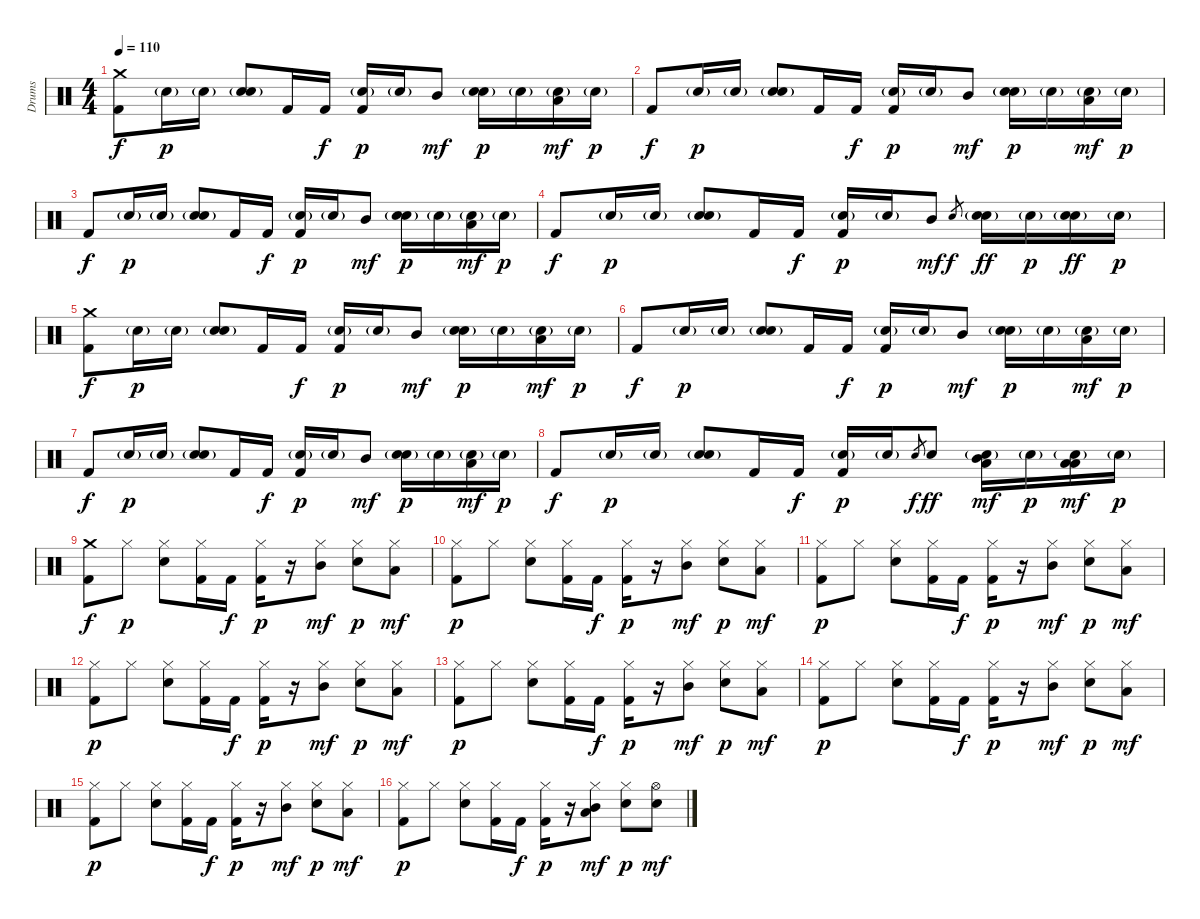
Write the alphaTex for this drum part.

\track ("Drums" "Drums") {instrument percussion}
\staff {score}
\articulation defaults
\ts (4 4)
\tempo 110
\clef neutral
\ks c
("Crash medium (hit)" "Kick (hit) 2").8{dy f} "Hand Clap (hit)"{g}.16{dy p} "Hand Clap (hit)"{g}.16 ("Hand Clap (hit)"{g} "Electric Snare (hit)").8 "Kick (hit) 2".16 "Kick (hit) 2".16{dy f} ("Hand Clap (hit)"{g} "Kick (hit) 2").16{dy p} "Hand Clap (hit)"{g}.16 "Mid Tom (hit)".8{dy mf} ("Hand Clap (hit)"{g} "Electric Snare (hit)").16{dy p} "Hand Clap (hit)"{g}.16 ("Hand Clap (hit)"{g} "Low Tom (hit)").16{dy mf} "Hand Clap (hit)"{g}.16{dy p} |
"Kick (hit) 2".8{dy f} "Hand Clap (hit)"{g}.16{dy p} "Hand Clap (hit)"{g}.16 ("Hand Clap (hit)"{g} "Electric Snare (hit)").8 "Kick (hit) 2".16 "Kick (hit) 2".16{dy f} ("Hand Clap (hit)"{g} "Kick (hit) 2").16{dy p} "Hand Clap (hit)"{g}.16 "Mid Tom (hit)".8{dy mf} ("Hand Clap (hit)"{g} "Electric Snare (hit)").16{dy p} "Hand Clap (hit)"{g}.16 ("Hand Clap (hit)"{g} "Low Tom (hit)").16{dy mf} "Hand Clap (hit)"{g}.16{dy p} |
"Kick (hit) 2".8{dy f} "Hand Clap (hit)"{g}.16{dy p} "Hand Clap (hit)"{g}.16 ("Hand Clap (hit)"{g} "Electric Snare (hit)").8 "Kick (hit) 2".16 "Kick (hit) 2".16{dy f} ("Hand Clap (hit)"{g} "Kick (hit) 2").16{dy p} "Hand Clap (hit)"{g}.16 "Mid Tom (hit)".8{dy mf} ("Hand Clap (hit)"{g} "Electric Snare (hit)").16{dy p} "Hand Clap (hit)"{g}.16 ("Hand Clap (hit)"{g} "Low Tom (hit)").16{dy mf} "Hand Clap (hit)"{g}.16{dy p} |
"Kick (hit) 2".8{dy f} "Hand Clap (hit)"{g}.16{dy p} "Hand Clap (hit)"{g}.16 ("Hand Clap (hit)"{g} "Electric Snare (hit)").8 "Kick (hit) 2".16 "Kick (hit) 2".16{dy f} ("Hand Clap (hit)"{g} "Kick (hit) 2").16{dy p} "Hand Clap (hit)"{g}.16 "Mid Tom (hit)".8{dy mf} "Electric Snare (hit)".8{gr dy f} ("Hand Clap (hit)"{g} "Electric Snare (hit)").16{dy ff} "Hand Clap (hit)"{g}.16{dy p} ("Hand Clap (hit)"{g} "Electric Snare (hit)").16{dy ff} "Hand Clap (hit)"{g}.16{dy p} |
("Crash medium (hit)" "Kick (hit) 2").8{dy f} "Hand Clap (hit)"{g}.16{dy p} "Hand Clap (hit)"{g}.16 ("Hand Clap (hit)"{g} "Electric Snare (hit)").8 "Kick (hit) 2".16 "Kick (hit) 2".16{dy f} ("Hand Clap (hit)"{g} "Kick (hit) 2").16{dy p} "Hand Clap (hit)"{g}.16 "Mid Tom (hit)".8{dy mf} ("Hand Clap (hit)"{g} "Electric Snare (hit)").16{dy p} "Hand Clap (hit)"{g}.16 ("Hand Clap (hit)"{g} "Low Tom (hit)").16{dy mf} "Hand Clap (hit)"{g}.16{dy p} |
"Kick (hit) 2".8{dy f} "Hand Clap (hit)"{g}.16{dy p} "Hand Clap (hit)"{g}.16 ("Hand Clap (hit)"{g} "Electric Snare (hit)").8 "Kick (hit) 2".16 "Kick (hit) 2".16{dy f} ("Hand Clap (hit)"{g} "Kick (hit) 2").16{dy p} "Hand Clap (hit)"{g}.16 "Mid Tom (hit)".8{dy mf} ("Hand Clap (hit)"{g} "Electric Snare (hit)").16{dy p} "Hand Clap (hit)"{g}.16 ("Hand Clap (hit)"{g} "Low Tom (hit)").16{dy mf} "Hand Clap (hit)"{g}.16{dy p} |
"Kick (hit) 2".8{dy f} "Hand Clap (hit)"{g}.16{dy p} "Hand Clap (hit)"{g}.16 ("Hand Clap (hit)"{g} "Electric Snare (hit)").8 "Kick (hit) 2".16 "Kick (hit) 2".16{dy f} ("Hand Clap (hit)"{g} "Kick (hit) 2").16{dy p} "Hand Clap (hit)"{g}.16 "Mid Tom (hit)".8{dy mf} ("Hand Clap (hit)"{g} "Electric Snare (hit)").16{dy p} "Hand Clap (hit)"{g}.16 ("Hand Clap (hit)"{g} "Low Tom (hit)").16{dy mf} "Hand Clap (hit)"{g}.16{dy p} |
"Kick (hit) 2".8{dy f} "Hand Clap (hit)"{g}.16{dy p} "Hand Clap (hit)"{g}.16 ("Hand Clap (hit)"{g} "Electric Snare (hit)").8 "Kick (hit) 2".16 "Kick (hit) 2".16{dy f} ("Hand Clap (hit)"{g} "Kick (hit) 2").16{dy p} "Hand Clap (hit)"{g}.16 "Electric Snare (hit)".8{gr dy f} "Electric Snare (hit)".8{dy ff} ("Hand Clap (hit)"{g} "Mid Tom (hit)" "Low Floor Tom (hit)").16{dy mf} "Hand Clap (hit)"{g}.16{dy p} ("Hand Clap (hit)"{g} "Low Tom (hit)" "Low Floor Tom (hit)").16{dy mf} "Hand Clap (hit)"{g}.16{dy p} |
("Crash medium (hit)" "Kick (hit) 2").8{dy f} "Hi-Hat (closed)".8{dy p} ("Hi-Hat (closed)" "Electric Snare (hit)").8 ("Hi-Hat (closed)" "Kick (hit) 2").16 "Kick (hit) 2".16{dy f} ("Hi-Hat (closed)" "Kick (hit) 2").16{dy p} r.16 ("Hi-Hat (closed)" "Mid Tom (hit)").8{dy mf} ("Hi-Hat (closed)" "Electric Snare (hit)").8{dy p} ("Hi-Hat (closed)" "Low Tom (hit)").8{dy mf} |
("Hi-Hat (closed)" "Kick (hit) 2").8{dy p} "Hi-Hat (closed)".8 ("Hi-Hat (closed)" "Electric Snare (hit)").8 ("Hi-Hat (closed)" "Kick (hit) 2").16 "Kick (hit) 2".16{dy f} ("Hi-Hat (closed)" "Kick (hit) 2").16{dy p} r.16 ("Hi-Hat (closed)" "Mid Tom (hit)").8{dy mf} ("Hi-Hat (closed)" "Electric Snare (hit)").8{dy p} ("Hi-Hat (closed)" "Low Tom (hit)").8{dy mf} |
("Hi-Hat (closed)" "Kick (hit) 2").8{dy p} "Hi-Hat (closed)".8 ("Hi-Hat (closed)" "Electric Snare (hit)").8 ("Hi-Hat (closed)" "Kick (hit) 2").16 "Kick (hit) 2".16{dy f} ("Hi-Hat (closed)" "Kick (hit) 2").16{dy p} r.16 ("Hi-Hat (closed)" "Mid Tom (hit)").8{dy mf} ("Hi-Hat (closed)" "Electric Snare (hit)").8{dy p} ("Hi-Hat (closed)" "Low Tom (hit)").8{dy mf} |
("Hi-Hat (closed)" "Kick (hit) 2").8{dy p} "Hi-Hat (closed)".8 ("Hi-Hat (closed)" "Electric Snare (hit)").8 ("Hi-Hat (closed)" "Kick (hit) 2").16 "Kick (hit) 2".16{dy f} ("Hi-Hat (closed)" "Kick (hit) 2").16{dy p} r.16 ("Hi-Hat (closed)" "Mid Tom (hit)").8{dy mf} ("Hi-Hat (closed)" "Electric Snare (hit)").8{dy p} ("Hi-Hat (closed)" "Low Tom (hit)").8{dy mf} |
("Hi-Hat (closed)" "Kick (hit) 2").8{dy p} "Hi-Hat (closed)".8 ("Hi-Hat (closed)" "Electric Snare (hit)").8 ("Hi-Hat (closed)" "Kick (hit) 2").16 "Kick (hit) 2".16{dy f} ("Hi-Hat (closed)" "Kick (hit) 2").16{dy p} r.16 ("Hi-Hat (closed)" "Mid Tom (hit)").8{dy mf} ("Hi-Hat (closed)" "Electric Snare (hit)").8{dy p} ("Hi-Hat (closed)" "Low Tom (hit)").8{dy mf} |
("Hi-Hat (closed)" "Kick (hit) 2").8{dy p} "Hi-Hat (closed)".8 ("Hi-Hat (closed)" "Electric Snare (hit)").8 ("Hi-Hat (closed)" "Kick (hit) 2").16 "Kick (hit) 2".16{dy f} ("Hi-Hat (closed)" "Kick (hit) 2").16{dy p} r.16 ("Hi-Hat (closed)" "Mid Tom (hit)").8{dy mf} ("Hi-Hat (closed)" "Electric Snare (hit)").8{dy p} ("Hi-Hat (closed)" "Low Tom (hit)").8{dy mf} |
("Hi-Hat (closed)" "Kick (hit) 2").8{dy p} "Hi-Hat (closed)".8 ("Hi-Hat (closed)" "Electric Snare (hit)").8 ("Hi-Hat (closed)" "Kick (hit) 2").16 "Kick (hit) 2".16{dy f} ("Hi-Hat (closed)" "Kick (hit) 2").16{dy p} r.16 ("Hi-Hat (closed)" "Mid Tom (hit)").8{dy mf} ("Hi-Hat (closed)" "Electric Snare (hit)").8{dy p} ("Hi-Hat (closed)" "Low Tom (hit)").8{dy mf} |
("Hi-Hat (closed)" "Kick (hit) 2").8{dy p} "Hi-Hat (closed)".8 ("Hi-Hat (closed)" "Electric Snare (hit)").8 ("Hi-Hat (closed)" "Kick (hit) 2").16 "Kick (hit) 2".16{dy f} ("Hi-Hat (closed)" "Kick (hit) 2").16{dy p} r.16 ("Hi-Hat (closed)" "Mid Tom (hit)" "Low Floor Tom (hit)").8{dy mf} ("Hi-Hat (closed)" "Electric Snare (hit)").8{dy p} ("Hi-Hat (open)" "Electric Snare (hit)").8{dy mf}
